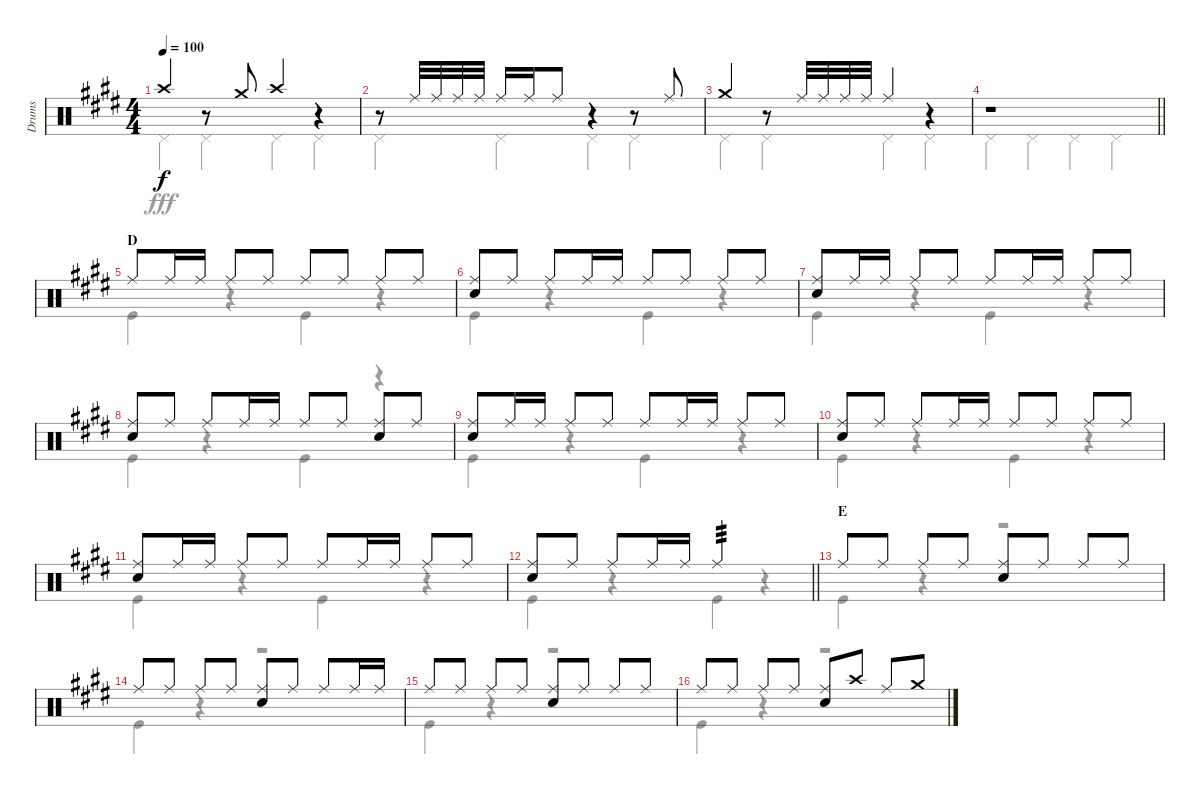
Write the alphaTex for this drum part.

\track ("Drums" "Drums") {instrument percussion}
\staff {score}
\articulation defaults
\voice
\ts (4 4)
\tempo 100
\clef neutral
\ks e "Crash high (hit)".4{dy f}
r.8 "Crash medium (hit)".8 "Crash high (hit)".4 r.4 |
r.8 "Ride (middle)".32 "Ride (middle)".32 "Ride (middle)".32 "Ride (middle)".32 "Ride (middle)".16 "Ride (middle)".16 "Ride (middle)".8 r.4 r.8 "Ride (middle)".8 |
"Crash medium (hit)".4 r.8 "Ride (middle)".32 "Ride (middle)".32 "Ride (middle)".32 "Ride (middle)".32 "Ride (middle)".4 r.4 |
\barLineRight lightlight
r.1 |
\section ("" "D")
"Ride (middle)".8 "Ride (middle)".16 "Ride (middle)".16 "Ride (middle)".8 "Ride (middle)".8 "Ride (middle)".8 "Ride (middle)".8 "Ride (middle)".8 "Ride (middle)".8 |
("Ride (middle)" "Snare (hit) 2").8 "Ride (middle)".8 "Ride (middle)".8 "Ride (middle)".16 "Ride (middle)".16 "Ride (middle)".8 "Ride (middle)".8 "Ride (middle)".8 "Ride (middle)".8 |
("Ride (middle)" "Snare (hit) 2").8 "Ride (middle)".16 "Ride (middle)".16 "Ride (middle)".8 "Ride (middle)".8 "Ride (middle)".8 "Ride (middle)".16 "Ride (middle)".16 "Ride (middle)".8 "Ride (middle)".8 |
("Ride (middle)" "Snare (hit) 2").8 "Ride (middle)".8 "Ride (middle)".8 "Ride (middle)".16 "Ride (middle)".16 "Ride (middle)".8 "Ride (middle)".8 ("Ride (middle)" "Snare (hit) 2").8 "Ride (middle)".8 |
("Ride (middle)" "Snare (hit) 2").8 "Ride (middle)".16 "Ride (middle)".16 "Ride (middle)".8 "Ride (middle)".8 "Ride (middle)".8 "Ride (middle)".16 "Ride (middle)".16 "Ride (middle)".8 "Ride (middle)".8 |
("Ride (middle)" "Snare (hit) 2").8 "Ride (middle)".8 "Ride (middle)".8 "Ride (middle)".16 "Ride (middle)".16 "Ride (middle)".8 "Ride (middle)".8 "Ride (middle)".8 "Ride (middle)".8 |
("Ride (middle)" "Snare (hit) 2").8 "Ride (middle)".16 "Ride (middle)".16 "Ride (middle)".8 "Ride (middle)".8 "Ride (middle)".8 "Ride (middle)".16 "Ride (middle)".16 "Ride (middle)".8 "Ride (middle)".8 |
\barLineRight lightlight
("Ride (middle)" "Snare (hit) 2").8 "Ride (middle)".8 "Ride (middle)".8 "Ride (middle)".16 "Ride (middle)".16 "Ride (middle)".2{tp 3} |
\section ("" "E")
"Ride (middle)".8 "Ride (middle)".8 "Ride (middle)".8 "Ride (middle)".8 ("Ride (middle)" "Snare (hit) 2").8 "Ride (middle)".8 "Ride (middle)".8 "Ride (middle)".8 |
"Ride (middle)".8 "Ride (middle)".8 "Ride (middle)".8 "Ride (middle)".8 ("Ride (middle)" "Snare (hit) 2").8 "Ride (middle)".8 "Ride (middle)".8 "Ride (middle)".16 "Ride (middle)".16 |
"Ride (middle)".8 "Ride (middle)".8 "Ride (middle)".8 "Ride (middle)".8 ("Ride (middle)" "Snare (hit) 2").8 "Ride (middle)".8 "Ride (middle)".8 "Ride (middle)".8 |
"Ride (middle)".8 "Ride (middle)".8 "Ride (middle)".8 "Ride (middle)".8 ("Ride (middle)" "Snare (hit) 2").8 "Crash high (hit)".8 "Ride (middle)".8 "Crash medium (hit)".8
\voice
\clef neutral
\ottava regular
\simile none
\ks e "Pedal Hi-Hat (hit)".4{dy fff} "Pedal Hi-Hat (hit)".4 "Pedal Hi-Hat (hit)".4 "Pedal Hi-Hat (hit)".4
|
"Pedal Hi-Hat (hit)".4 "Pedal Hi-Hat (hit)".4 "Pedal Hi-Hat (hit)".4 "Pedal Hi-Hat (hit)".4 |
"Pedal Hi-Hat (hit)".4 "Pedal Hi-Hat (hit)".4 "Pedal Hi-Hat (hit)".4 "Pedal Hi-Hat (hit)".4 |
\barLineRight lightlight "Pedal Hi-Hat (hit)".4 "Pedal Hi-Hat (hit)".4 "Pedal Hi-Hat (hit)".4 "Pedal Hi-Hat (hit)".4
|
"Kick (hit)".4 r.4 "Kick (hit)".4 r.4 |
"Kick (hit)".4 r.4 "Kick (hit)".4 r.4 |
"Kick (hit)".4 r.4 "Kick (hit)".4 r.4 |
"Kick (hit)".4 r.4 "Kick (hit)".4 r.4 |
"Kick (hit)".4 r.4 "Kick (hit)".4 r.4 |
"Kick (hit)".4 r.4 "Kick (hit)".4 r.4 |
"Kick (hit)".4 r.4 "Kick (hit)".4 r.4 |
\barLineRight lightlight "Kick (hit)".4
r.4 "Kick (hit)".4 r.4 |
"Kick (hit)".4 r.4 r.2 |
"Kick (hit)".4 r.4 r.2 |
"Kick (hit)".4 r.4 r.2 |
"Kick (hit)".4 r.4 r.2
